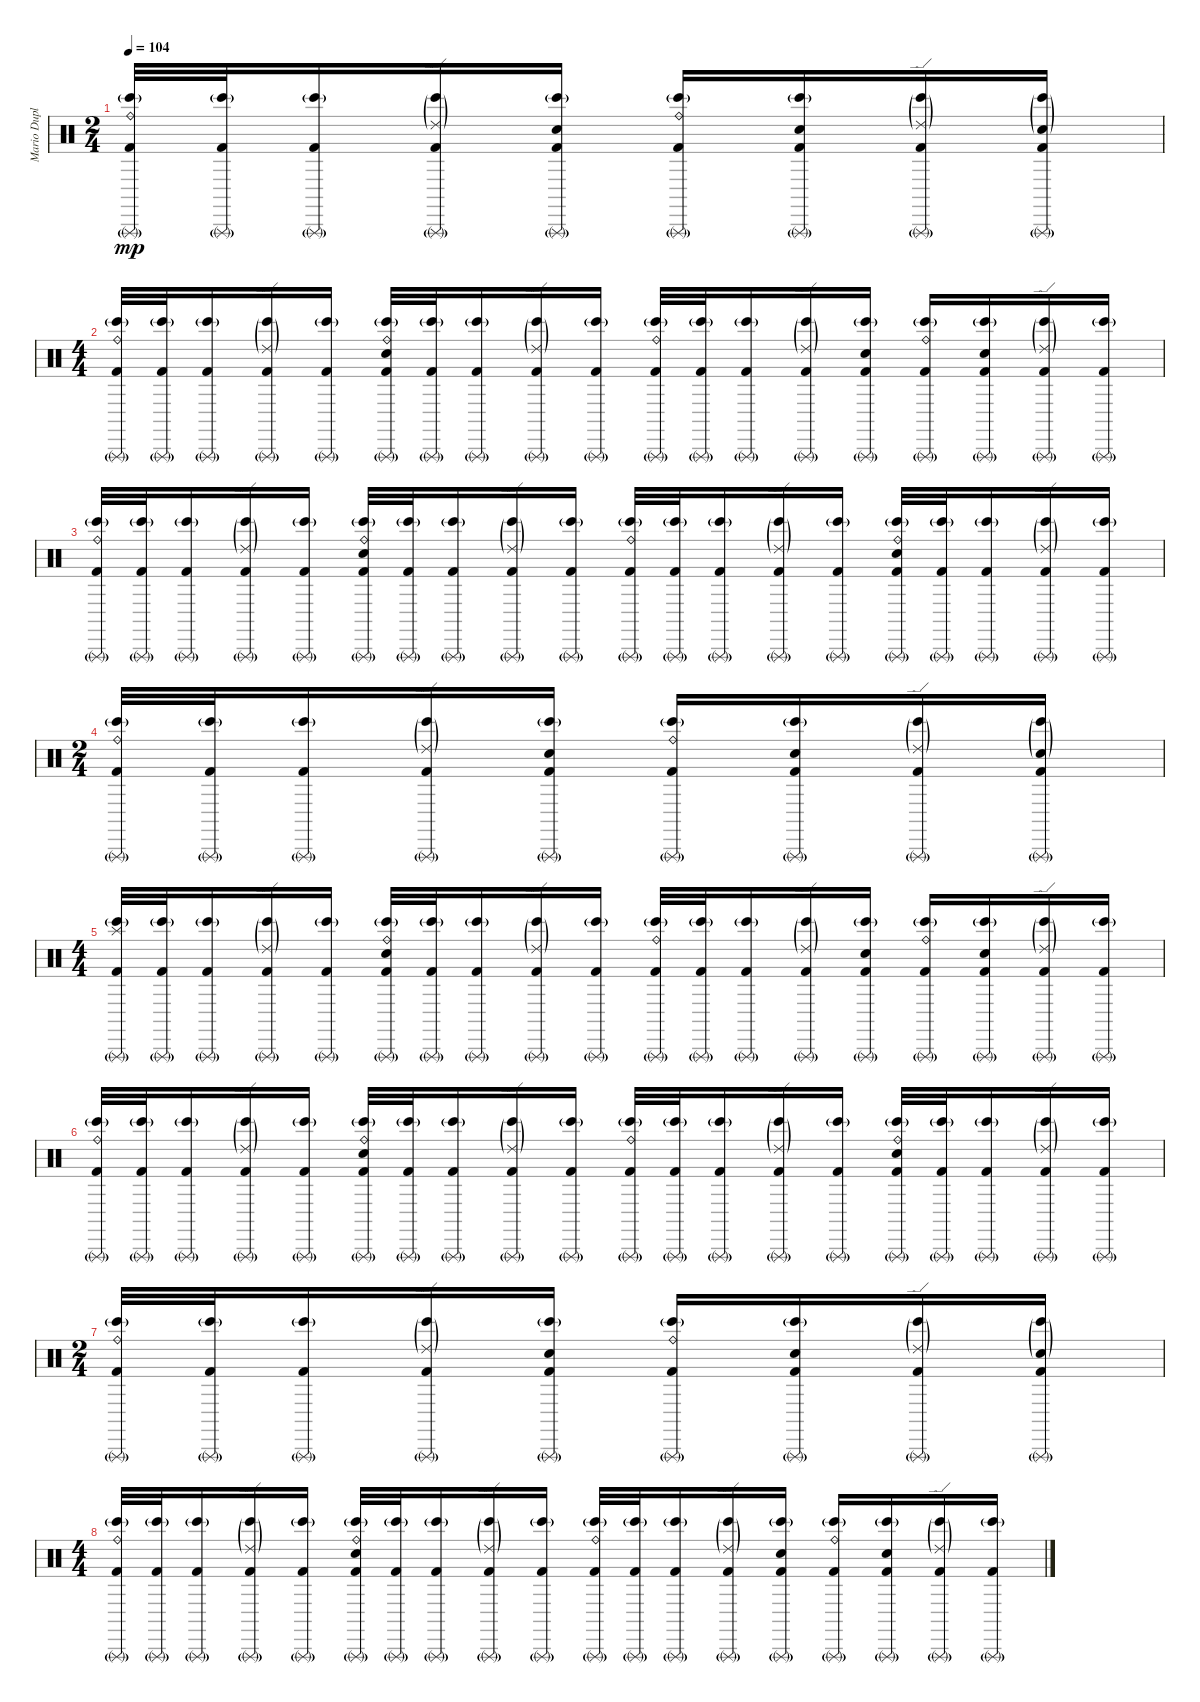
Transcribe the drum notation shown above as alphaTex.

\track ("Mario Duplantier" "Mario Dupl") {instrument percussion}
\staff {score}
\articulation defaults
\ts (2 4)
\tempo 104
\clef neutral
\ks c
("Triangle (rnute)"{g} "Bongo High (hit)"{g} "Ride (bell)" "Kick (hit) 2").32{dy mp} ("Triangle (rnute)"{g} "Bongo High (hit)"{g} "Kick (hit) 2").32 ("Triangle (rnute)"{g} "Bongo High (hit)"{g} "Kick (hit) 2").16 ("Triangle (rnute)"{g} "Bongo High (hit)"{g} "Ride (edge) 2"{g} "Kick (hit) 2").16 ("Triangle (rnute)"{g} "Bongo High (hit)"{g} "Electric Snare (hit)" "Kick (hit) 2").16 ("Triangle (rnute)"{g} "Bongo High (hit)"{g} "Ride (bell)" "Kick (hit) 2").16 ("Triangle (rnute)"{g} "Bongo High (hit)"{g} "Electric Snare (hit)" "Kick (hit) 2").16 ("Triangle (rnute)"{g} "Bongo High (hit)"{g} "Ride (edge) 2"{g} "Kick (hit) 2").16 ("Triangle (rnute)"{g} "Bongo High (hit)"{g} "Electric Snare (hit)"{g} "Kick (hit) 2").16 |
\ts (4 4)
("Triangle (rnute)"{g} "Bongo High (hit)"{g} "Ride (bell)" "Kick (hit) 2").32 ("Triangle (rnute)"{g} "Bongo High (hit)"{g} "Kick (hit) 2").32 ("Triangle (rnute)"{g} "Bongo High (hit)"{g} "Kick (hit) 2").16 ("Triangle (rnute)"{g} "Bongo High (hit)"{g} "Ride (edge) 2"{g} "Kick (hit) 2").16 ("Triangle (rnute)"{g} "Bongo High (hit)"{g} "Kick (hit) 2").16 ("Triangle (rnute)"{g} "Bongo High (hit)"{g} "Ride (bell)" "Electric Snare (hit)" "Kick (hit) 2").32 ("Triangle (rnute)"{g} "Bongo High (hit)"{g} "Kick (hit) 2").32 ("Triangle (rnute)"{g} "Bongo High (hit)"{g} "Kick (hit) 2").16 ("Triangle (rnute)"{g} "Bongo High (hit)"{g} "Ride (edge) 2"{g} "Kick (hit) 2").16 ("Triangle (rnute)"{g} "Bongo High (hit)"{g} "Kick (hit) 2").16 ("Triangle (rnute)"{g} "Bongo High (hit)"{g} "Ride (bell)" "Kick (hit) 2").32 ("Triangle (rnute)"{g} "Bongo High (hit)"{g} "Kick (hit) 2").32 ("Triangle (rnute)"{g} "Bongo High (hit)"{g} "Kick (hit) 2").16 ("Triangle (rnute)"{g} "Bongo High (hit)"{g} "Ride (edge) 2"{g} "Kick (hit) 2").16 ("Triangle (rnute)"{g} "Bongo High (hit)"{g} "Electric Snare (hit)" "Kick (hit) 2").16 ("Triangle (rnute)"{g} "Bongo High (hit)"{g} "Ride (bell)" "Kick (hit) 2").16 ("Triangle (rnute)"{g} "Bongo High (hit)"{g} "Electric Snare (hit)" "Kick (hit) 2").16 ("Triangle (rnute)"{g} "Bongo High (hit)"{g} "Ride (edge) 2"{g} "Kick (hit) 2").16 ("Triangle (rnute)"{g} "Bongo High (hit)"{g} "Kick (hit) 2").16 |
("Triangle (rnute)"{g} "Bongo High (hit)"{g} "Ride (bell)" "Kick (hit) 2").32 ("Triangle (rnute)"{g} "Bongo High (hit)"{g} "Kick (hit) 2").32 ("Triangle (rnute)"{g} "Bongo High (hit)"{g} "Kick (hit) 2").16 ("Triangle (rnute)"{g} "Bongo High (hit)"{g} "Ride (edge) 2"{g} "Kick (hit) 2").16 ("Triangle (rnute)"{g} "Bongo High (hit)"{g} "Kick (hit) 2").16 ("Triangle (rnute)"{g} "Bongo High (hit)"{g} "Ride (bell)" "Electric Snare (hit)" "Kick (hit) 2").32 ("Triangle (rnute)"{g} "Bongo High (hit)"{g} "Kick (hit) 2").32 ("Triangle (rnute)"{g} "Bongo High (hit)"{g} "Kick (hit) 2").16 ("Triangle (rnute)"{g} "Bongo High (hit)"{g} "Ride (edge) 2"{g} "Kick (hit) 2").16 ("Triangle (rnute)"{g} "Bongo High (hit)"{g} "Kick (hit) 2").16 ("Triangle (rnute)"{g} "Bongo High (hit)"{g} "Ride (bell)" "Kick (hit) 2").32 ("Triangle (rnute)"{g} "Bongo High (hit)"{g} "Kick (hit) 2").32 ("Triangle (rnute)"{g} "Bongo High (hit)"{g} "Kick (hit) 2").16 ("Triangle (rnute)"{g} "Bongo High (hit)"{g} "Ride (edge) 2"{g} "Kick (hit) 2").16 ("Triangle (rnute)"{g} "Bongo High (hit)"{g} "Kick (hit) 2").16 ("Triangle (rnute)"{g} "Bongo High (hit)"{g} "Ride (bell)" "Electric Snare (hit)" "Kick (hit) 2").32 ("Triangle (rnute)"{g} "Bongo High (hit)"{g} "Kick (hit) 2").32 ("Triangle (rnute)"{g} "Bongo High (hit)"{g} "Kick (hit) 2").16 ("Triangle (rnute)"{g} "Bongo High (hit)"{g} "Ride (edge) 2"{g} "Kick (hit) 2").16 ("Triangle (rnute)"{g} "Bongo High (hit)"{g} "Kick (hit) 2").16 |
\ts (2 4)
("Triangle (rnute)"{g} "Bongo High (hit)"{g} "Ride (bell)" "Kick (hit) 2").32 ("Triangle (rnute)"{g} "Bongo High (hit)"{g} "Kick (hit) 2").32 ("Triangle (rnute)"{g} "Bongo High (hit)"{g} "Kick (hit) 2").16 ("Triangle (rnute)"{g} "Bongo High (hit)"{g} "Ride (edge) 2"{g} "Kick (hit) 2").16 ("Triangle (rnute)"{g} "Bongo High (hit)"{g} "Electric Snare (hit)" "Kick (hit) 2").16 ("Triangle (rnute)"{g} "Bongo High (hit)"{g} "Ride (bell)" "Kick (hit) 2").16 ("Triangle (rnute)"{g} "Bongo High (hit)"{g} "Electric Snare (hit)" "Kick (hit) 2").16 ("Triangle (rnute)"{g} "Bongo High (hit)"{g} "Ride (edge) 2"{g} "Kick (hit) 2").16 ("Triangle (rnute)"{g} "Bongo High (hit)"{g} "Electric Snare (hit)"{g} "Kick (hit) 2").16 |
\ts (4 4)
("Triangle (rnute)"{g} "Bongo High (hit)"{g} "Splash (hit)" "Kick (hit) 2").32 ("Triangle (rnute)"{g} "Bongo High (hit)"{g} "Kick (hit) 2").32 ("Triangle (rnute)"{g} "Bongo High (hit)"{g} "Kick (hit) 2").16 ("Triangle (rnute)"{g} "Bongo High (hit)"{g} "Ride (edge) 2"{g} "Kick (hit) 2").16 ("Triangle (rnute)"{g} "Bongo High (hit)"{g} "Kick (hit) 2").16 ("Triangle (rnute)"{g} "Bongo High (hit)"{g} "Ride (bell)" "Electric Snare (hit)" "Kick (hit) 2").32 ("Triangle (rnute)"{g} "Bongo High (hit)"{g} "Kick (hit) 2").32 ("Triangle (rnute)"{g} "Bongo High (hit)"{g} "Kick (hit) 2").16 ("Triangle (rnute)"{g} "Bongo High (hit)"{g} "Ride (edge) 2"{g} "Kick (hit) 2").16 ("Triangle (rnute)"{g} "Bongo High (hit)"{g} "Kick (hit) 2").16 ("Triangle (rnute)"{g} "Bongo High (hit)"{g} "Ride (bell)" "Kick (hit) 2").32 ("Triangle (rnute)"{g} "Bongo High (hit)"{g} "Kick (hit) 2").32 ("Triangle (rnute)"{g} "Bongo High (hit)"{g} "Kick (hit) 2").16 ("Triangle (rnute)"{g} "Bongo High (hit)"{g} "Ride (edge) 2"{g} "Kick (hit) 2").16 ("Triangle (rnute)"{g} "Bongo High (hit)"{g} "Electric Snare (hit)" "Kick (hit) 2").16 ("Triangle (rnute)"{g} "Bongo High (hit)"{g} "Ride (bell)" "Kick (hit) 2").16 ("Triangle (rnute)"{g} "Bongo High (hit)"{g} "Electric Snare (hit)" "Kick (hit) 2").16 ("Triangle (rnute)"{g} "Bongo High (hit)"{g} "Ride (edge) 2"{g} "Kick (hit) 2").16 ("Triangle (rnute)"{g} "Bongo High (hit)"{g} "Kick (hit) 2").16 |
("Triangle (rnute)"{g} "Bongo High (hit)"{g} "Ride (bell)" "Kick (hit) 2").32 ("Triangle (rnute)"{g} "Bongo High (hit)"{g} "Kick (hit) 2").32 ("Triangle (rnute)"{g} "Bongo High (hit)"{g} "Kick (hit) 2").16 ("Triangle (rnute)"{g} "Bongo High (hit)"{g} "Ride (edge) 2"{g} "Kick (hit) 2").16 ("Triangle (rnute)"{g} "Bongo High (hit)"{g} "Kick (hit) 2").16 ("Triangle (rnute)"{g} "Bongo High (hit)"{g} "Ride (bell)" "Electric Snare (hit)" "Kick (hit) 2").32 ("Triangle (rnute)"{g} "Bongo High (hit)"{g} "Kick (hit) 2").32 ("Triangle (rnute)"{g} "Bongo High (hit)"{g} "Kick (hit) 2").16 ("Triangle (rnute)"{g} "Bongo High (hit)"{g} "Ride (edge) 2"{g} "Kick (hit) 2").16 ("Triangle (rnute)"{g} "Bongo High (hit)"{g} "Kick (hit) 2").16 ("Triangle (rnute)"{g} "Bongo High (hit)"{g} "Ride (bell)" "Kick (hit) 2").32 ("Triangle (rnute)"{g} "Bongo High (hit)"{g} "Kick (hit) 2").32 ("Triangle (rnute)"{g} "Bongo High (hit)"{g} "Kick (hit) 2").16 ("Triangle (rnute)"{g} "Bongo High (hit)"{g} "Ride (edge) 2"{g} "Kick (hit) 2").16 ("Triangle (rnute)"{g} "Bongo High (hit)"{g} "Kick (hit) 2").16 ("Triangle (rnute)"{g} "Bongo High (hit)"{g} "Ride (bell)" "Electric Snare (hit)" "Kick (hit) 2").32 ("Triangle (rnute)"{g} "Bongo High (hit)"{g} "Kick (hit) 2").32 ("Triangle (rnute)"{g} "Bongo High (hit)"{g} "Kick (hit) 2").16 ("Triangle (rnute)"{g} "Bongo High (hit)"{g} "Ride (edge) 2"{g} "Kick (hit) 2").16 ("Triangle (rnute)"{g} "Bongo High (hit)"{g} "Kick (hit) 2").16 |
\ts (2 4)
("Triangle (rnute)"{g} "Bongo High (hit)"{g} "Ride (bell)" "Kick (hit) 2").32 ("Triangle (rnute)"{g} "Bongo High (hit)"{g} "Kick (hit) 2").32 ("Triangle (rnute)"{g} "Bongo High (hit)"{g} "Kick (hit) 2").16 ("Triangle (rnute)"{g} "Bongo High (hit)"{g} "Ride (edge) 2"{g} "Kick (hit) 2").16 ("Triangle (rnute)"{g} "Bongo High (hit)"{g} "Electric Snare (hit)" "Kick (hit) 2").16 ("Triangle (rnute)"{g} "Bongo High (hit)"{g} "Ride (bell)" "Kick (hit) 2").16 ("Triangle (rnute)"{g} "Bongo High (hit)"{g} "Electric Snare (hit)" "Kick (hit) 2").16 ("Triangle (rnute)"{g} "Bongo High (hit)"{g} "Ride (edge) 2"{g} "Kick (hit) 2").16 ("Triangle (rnute)"{g} "Bongo High (hit)"{g} "Electric Snare (hit)"{g} "Kick (hit) 2").16 |
\ts (4 4)
("Triangle (rnute)"{g} "Bongo High (hit)"{g} "Ride (bell)" "Kick (hit) 2").32 ("Triangle (rnute)"{g} "Bongo High (hit)"{g} "Kick (hit) 2").32 ("Triangle (rnute)"{g} "Bongo High (hit)"{g} "Kick (hit) 2").16 ("Triangle (rnute)"{g} "Bongo High (hit)"{g} "Ride (edge) 2"{g} "Kick (hit) 2").16 ("Triangle (rnute)"{g} "Bongo High (hit)"{g} "Kick (hit) 2").16 ("Triangle (rnute)"{g} "Bongo High (hit)"{g} "Ride (bell)" "Electric Snare (hit)" "Kick (hit) 2").32 ("Triangle (rnute)"{g} "Bongo High (hit)"{g} "Kick (hit) 2").32 ("Triangle (rnute)"{g} "Bongo High (hit)"{g} "Kick (hit) 2").16 ("Triangle (rnute)"{g} "Bongo High (hit)"{g} "Ride (edge) 2"{g} "Kick (hit) 2").16 ("Triangle (rnute)"{g} "Bongo High (hit)"{g} "Kick (hit) 2").16 ("Triangle (rnute)"{g} "Bongo High (hit)"{g} "Ride (bell)" "Kick (hit) 2").32 ("Triangle (rnute)"{g} "Bongo High (hit)"{g} "Kick (hit) 2").32 ("Triangle (rnute)"{g} "Bongo High (hit)"{g} "Kick (hit) 2").16 ("Triangle (rnute)"{g} "Bongo High (hit)"{g} "Ride (edge) 2"{g} "Kick (hit) 2").16 ("Triangle (rnute)"{g} "Bongo High (hit)"{g} "Electric Snare (hit)" "Kick (hit) 2").16 ("Triangle (rnute)"{g} "Bongo High (hit)"{g} "Ride (bell)" "Kick (hit) 2").16 ("Triangle (rnute)"{g} "Bongo High (hit)"{g} "Electric Snare (hit)" "Kick (hit) 2").16 ("Triangle (rnute)"{g} "Bongo High (hit)"{g} "Ride (edge) 2"{g} "Kick (hit) 2").16 ("Triangle (rnute)"{g} "Bongo High (hit)"{g} "Kick (hit) 2").16
